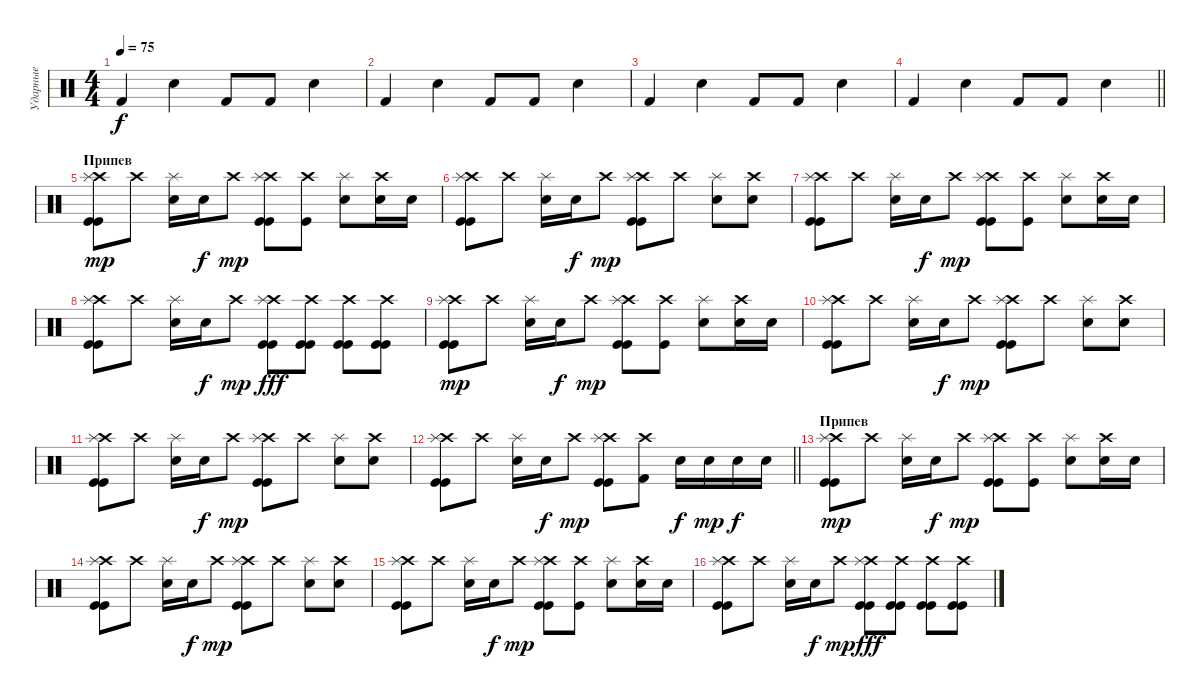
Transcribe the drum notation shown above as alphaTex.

\track ("Ударные" "Ударные") {instrument percussion}
\staff {score}
\articulation defaults
\ts (4 4)
\tempo 75
\clef neutral
\ks c "Kick (hit) 2".4{dy f} "Electric Snare (hit)".4 "Kick (hit) 2".8 "Kick (hit) 2".8 "Electric Snare (hit)".4
|
"Kick (hit) 2".4 "Electric Snare (hit)".4 "Kick (hit) 2".8 "Kick (hit) 2".8 "Electric Snare (hit)".4 |
"Kick (hit) 2".4 "Electric Snare (hit)".4 "Kick (hit) 2".8 "Kick (hit) 2".8 "Electric Snare (hit)".4 |
\barLineRight lightlight "Kick (hit) 2".4 "Electric Snare (hit)".4 "Kick (hit) 2".8 "Kick (hit) 2".8 "Electric Snare (hit)".4
|
\section ("" "Припев")
("Crash high (hit)" "Splash (hit)" "Kick (hit)" "Kick (hit)").8{dy mp} "Crash high (hit)".8 ("Splash (hit)" "Electric Snare (hit)").16 "Snare (hit) 2".16{dy f} "Crash high (hit)".8{dy mp} ("Crash high (hit)" "Splash (hit)" "Kick (hit)" "Kick (hit)").8 ("Crash high (hit)" "Kick (hit)").8 ("Splash (hit)" "Electric Snare (hit)").8 ("Crash high (hit)" "Snare (hit) 2").16 "Electric Snare (hit)".16 |
("Crash high (hit)" "Splash (hit)" "Kick (hit)" "Kick (hit)").8 "Crash high (hit)".8 ("Splash (hit)" "Electric Snare (hit)").16 "Snare (hit) 2".16{dy f} "Crash high (hit)".8{dy mp} ("Crash high (hit)" "Splash (hit)" "Kick (hit)" "Kick (hit)").8 "Crash high (hit)".8 ("Splash (hit)" "Electric Snare (hit)").8 ("Crash high (hit)" "Snare (hit) 2").8 |
("Crash high (hit)" "Splash (hit)" "Kick (hit)" "Kick (hit)").8 "Crash high (hit)".8 ("Splash (hit)" "Electric Snare (hit)").16 "Snare (hit) 2".16{dy f} "Crash high (hit)".8{dy mp} ("Crash high (hit)" "Splash (hit)" "Kick (hit)" "Kick (hit)").8 ("Crash high (hit)" "Kick (hit)").8 ("Splash (hit)" "Electric Snare (hit)").8 ("Crash high (hit)" "Snare (hit) 2").16 "Electric Snare (hit)".16 |
("Crash high (hit)" "Splash (hit)" "Kick (hit)" "Kick (hit)").8 "Crash high (hit)".8 ("Splash (hit)" "Electric Snare (hit)").16 "Snare (hit) 2".16{dy f} "Crash high (hit)".8{dy mp} ("Crash high (hit)" "Splash (hit)" "Kick (hit)" "Kick (hit)").8{dy fff} ("Crash high (hit)" "Kick (hit)" "Kick (hit)").8 ("Crash high (hit)" "Kick (hit)" "Kick (hit)").8 ("Crash high (hit)" "Kick (hit)" "Kick (hit)").8 |
("Crash high (hit)" "Splash (hit)" "Kick (hit)" "Kick (hit)").8{dy mp} "Crash high (hit)".8 ("Splash (hit)" "Electric Snare (hit)").16 "Snare (hit) 2".16{dy f} "Crash high (hit)".8{dy mp} ("Crash high (hit)" "Splash (hit)" "Kick (hit)" "Kick (hit)").8 ("Crash high (hit)" "Kick (hit)").8 ("Splash (hit)" "Electric Snare (hit)").8 ("Crash high (hit)" "Snare (hit) 2").16 "Electric Snare (hit)".16 |
("Crash high (hit)" "Splash (hit)" "Kick (hit)" "Kick (hit)").8 "Crash high (hit)".8 ("Splash (hit)" "Electric Snare (hit)").16 "Snare (hit) 2".16{dy f} "Crash high (hit)".8{dy mp} ("Crash high (hit)" "Splash (hit)" "Kick (hit)" "Kick (hit)").8 "Crash high (hit)".8 ("Splash (hit)" "Electric Snare (hit)").8 ("Crash high (hit)" "Snare (hit) 2").8 |
("Crash high (hit)" "Splash (hit)" "Kick (hit)" "Kick (hit)").8 "Crash high (hit)".8 ("Splash (hit)" "Electric Snare (hit)").16 "Snare (hit) 2".16{dy f} "Crash high (hit)".8{dy mp} ("Crash high (hit)" "Splash (hit)" "Kick (hit)" "Kick (hit)").8 "Crash high (hit)".8 ("Splash (hit)" "Electric Snare (hit)").8 ("Crash high (hit)" "Snare (hit) 2").8 |
\barLineRight lightlight
("Crash high (hit)" "Splash (hit)" "Kick (hit)" "Kick (hit)").8 "Crash high (hit)".8 ("Splash (hit)" "Electric Snare (hit)").16 "Snare (hit) 2".16{dy f} "Crash high (hit)".8{dy mp} ("Crash high (hit)" "Splash (hit)" "Kick (hit)" "Kick (hit)").8 ("Crash high (hit)" "Kick (hit) 2").8 "Electric Snare (hit)".16{dy f} "Electric Snare (hit)".16{dy mp} "Electric Snare (hit)".16{dy f} "Electric Snare (hit)".16 |
\section ("" "Припев")
("Crash high (hit)" "Splash (hit)" "Kick (hit)" "Kick (hit)").8{dy mp} "Crash high (hit)".8 ("Splash (hit)" "Electric Snare (hit)").16 "Snare (hit) 2".16{dy f} "Crash high (hit)".8{dy mp} ("Crash high (hit)" "Splash (hit)" "Kick (hit)" "Kick (hit)").8 ("Crash high (hit)" "Kick (hit)").8 ("Splash (hit)" "Electric Snare (hit)").8 ("Crash high (hit)" "Snare (hit) 2").16 "Electric Snare (hit)".16 |
("Crash high (hit)" "Splash (hit)" "Kick (hit)" "Kick (hit)").8 "Crash high (hit)".8 ("Splash (hit)" "Electric Snare (hit)").16 "Snare (hit) 2".16{dy f} "Crash high (hit)".8{dy mp} ("Crash high (hit)" "Splash (hit)" "Kick (hit)" "Kick (hit)").8 "Crash high (hit)".8 ("Splash (hit)" "Electric Snare (hit)").8 ("Crash high (hit)" "Snare (hit) 2").8 |
("Crash high (hit)" "Splash (hit)" "Kick (hit)" "Kick (hit)").8 "Crash high (hit)".8 ("Splash (hit)" "Electric Snare (hit)").16 "Snare (hit) 2".16{dy f} "Crash high (hit)".8{dy mp} ("Crash high (hit)" "Splash (hit)" "Kick (hit)" "Kick (hit)").8 ("Crash high (hit)" "Kick (hit)").8 ("Splash (hit)" "Electric Snare (hit)").8 ("Crash high (hit)" "Snare (hit) 2").16 "Electric Snare (hit)".16 |
("Crash high (hit)" "Splash (hit)" "Kick (hit)" "Kick (hit)").8 "Crash high (hit)".8 ("Splash (hit)" "Electric Snare (hit)").16 "Snare (hit) 2".16{dy f} "Crash high (hit)".8{dy mp} ("Crash high (hit)" "Splash (hit)" "Kick (hit)" "Kick (hit)").8{dy fff} ("Crash high (hit)" "Kick (hit)" "Kick (hit)").8 ("Crash high (hit)" "Kick (hit)" "Kick (hit)").8 ("Crash high (hit)" "Kick (hit)" "Kick (hit)").8
